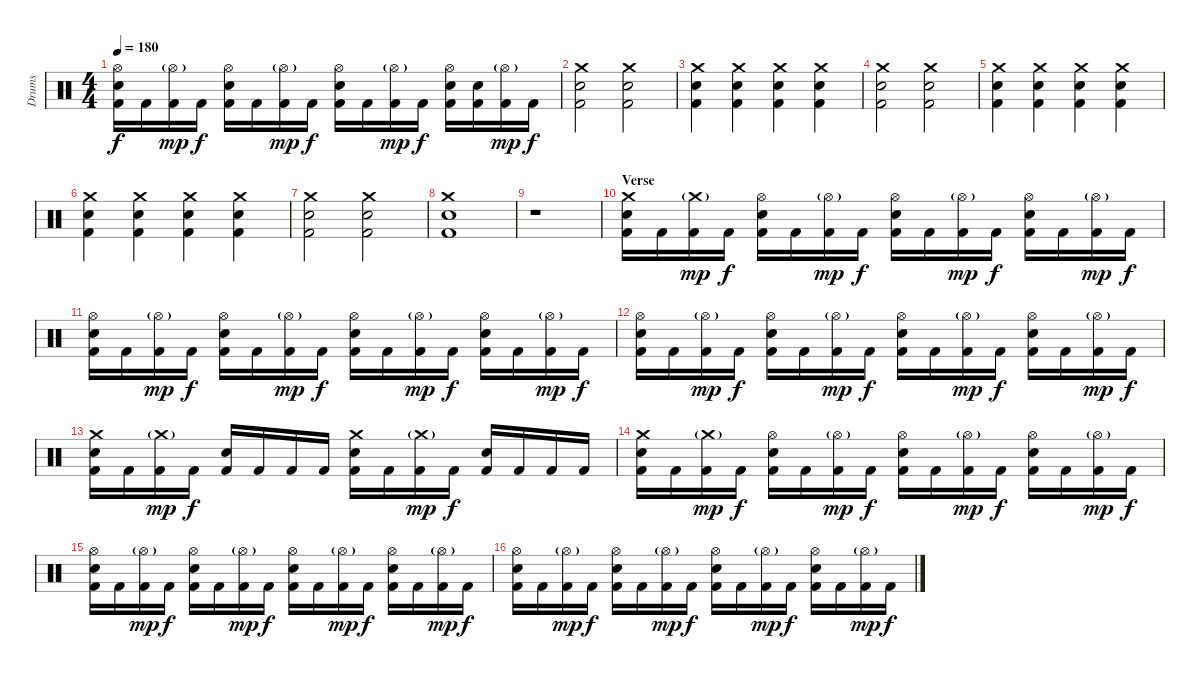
\track ("Drums" "Drums") {instrument percussion}
\staff {score}
\articulation defaults
\ts (4 4)
\tempo 180
\clef neutral
\ks c
("Hi-Hat (open)" "Electric Snare (hit)" "Kick (hit) 2").16{dy f} "Kick (hit) 2".16 ("Hi-Hat (open)"{g} "Kick (hit) 2").16{dy mp} "Kick (hit) 2".16{dy f} ("Hi-Hat (open)" "Electric Snare (hit)" "Kick (hit) 2").16 "Kick (hit) 2".16 ("Hi-Hat (open)"{g} "Kick (hit) 2").16{dy mp} "Kick (hit) 2".16{dy f} ("Hi-Hat (open)" "Electric Snare (hit)" "Kick (hit) 2").16 "Kick (hit) 2".16 ("Hi-Hat (open)"{g} "Kick (hit) 2").16{dy mp} "Kick (hit) 2".16{dy f} ("Hi-Hat (open)" "Electric Snare (hit)" "Kick (hit) 2").16 ("Electric Snare (hit)" "Kick (hit) 2").16 ("Hi-Hat (open)"{g} "Kick (hit) 2").16{dy mp} "Kick (hit) 2".16{dy f} |
\section ("" "")
("Crash medium (hit)" "Electric Snare (hit)" "Kick (hit) 2").2 ("Crash medium (hit)" "Electric Snare (hit)" "Kick (hit) 2").2 |
("Crash medium (hit)" "Electric Snare (hit)" "Kick (hit) 2").4 ("Crash medium (hit)" "Electric Snare (hit)" "Kick (hit) 2").4 ("Crash medium (hit)" "Electric Snare (hit)" "Kick (hit) 2").4 ("Crash medium (hit)" "Electric Snare (hit)" "Kick (hit) 2").4 |
("Crash medium (hit)" "Electric Snare (hit)" "Kick (hit) 2").2 ("Crash medium (hit)" "Electric Snare (hit)" "Kick (hit) 2").2 |
("Crash medium (hit)" "Electric Snare (hit)" "Kick (hit) 2").4 ("Crash medium (hit)" "Electric Snare (hit)" "Kick (hit) 2").4 ("Crash medium (hit)" "Electric Snare (hit)" "Kick (hit) 2").4 ("Crash medium (hit)" "Electric Snare (hit)" "Kick (hit) 2").4 |
("Crash medium (hit)" "Electric Snare (hit)" "Kick (hit) 2").4 ("Crash medium (hit)" "Electric Snare (hit)" "Kick (hit) 2").4 ("Crash medium (hit)" "Electric Snare (hit)" "Kick (hit) 2").4 ("Crash medium (hit)" "Electric Snare (hit)" "Kick (hit) 2").4 |
("Crash medium (hit)" "Electric Snare (hit)" "Kick (hit) 2").2 ("Crash medium (hit)" "Electric Snare (hit)" "Kick (hit) 2").2 |
("Crash medium (hit)" "Electric Snare (hit)" "Kick (hit) 2").1 |
r.1 |
\section ("" "Verse")
("Crash medium (hit)" "Electric Snare (hit)" "Kick (hit) 2").16 "Kick (hit) 2".16 ("Crash medium (hit)"{g} "Kick (hit) 2").16{dy mp} "Kick (hit) 2".16{dy f} ("Hi-Hat (open)" "Electric Snare (hit)" "Kick (hit) 2").16 "Kick (hit) 2".16 ("Hi-Hat (open)"{g} "Kick (hit) 2").16{dy mp} "Kick (hit) 2".16{dy f} ("Hi-Hat (open)" "Electric Snare (hit)" "Kick (hit) 2").16 "Kick (hit) 2".16 ("Hi-Hat (open)"{g} "Kick (hit) 2").16{dy mp} "Kick (hit) 2".16{dy f} ("Hi-Hat (open)" "Electric Snare (hit)" "Kick (hit) 2").16 "Kick (hit) 2".16 ("Hi-Hat (open)"{g} "Kick (hit) 2").16{dy mp} "Kick (hit) 2".16{dy f} |
("Hi-Hat (open)" "Electric Snare (hit)" "Kick (hit) 2").16 "Kick (hit) 2".16 ("Hi-Hat (open)"{g} "Kick (hit) 2").16{dy mp} "Kick (hit) 2".16{dy f} ("Hi-Hat (open)" "Electric Snare (hit)" "Kick (hit) 2").16 "Kick (hit) 2".16 ("Hi-Hat (open)"{g} "Kick (hit) 2").16{dy mp} "Kick (hit) 2".16{dy f} ("Hi-Hat (open)" "Electric Snare (hit)" "Kick (hit) 2").16 "Kick (hit) 2".16 ("Hi-Hat (open)"{g} "Kick (hit) 2").16{dy mp} "Kick (hit) 2".16{dy f} ("Hi-Hat (open)" "Electric Snare (hit)" "Kick (hit) 2").16 "Kick (hit) 2".16 ("Hi-Hat (open)"{g} "Kick (hit) 2").16{dy mp} "Kick (hit) 2".16{dy f} |
("Hi-Hat (open)" "Electric Snare (hit)" "Kick (hit) 2").16 "Kick (hit) 2".16 ("Hi-Hat (open)"{g} "Kick (hit) 2").16{dy mp} "Kick (hit) 2".16{dy f} ("Hi-Hat (open)" "Electric Snare (hit)" "Kick (hit) 2").16 "Kick (hit) 2".16 ("Hi-Hat (open)"{g} "Kick (hit) 2").16{dy mp} "Kick (hit) 2".16{dy f} ("Hi-Hat (open)" "Electric Snare (hit)" "Kick (hit) 2").16 "Kick (hit) 2".16 ("Hi-Hat (open)"{g} "Kick (hit) 2").16{dy mp} "Kick (hit) 2".16{dy f} ("Hi-Hat (open)" "Electric Snare (hit)" "Kick (hit) 2").16 "Kick (hit) 2".16 ("Hi-Hat (open)"{g} "Kick (hit) 2").16{dy mp} "Kick (hit) 2".16{dy f} |
("Crash medium (hit)" "Electric Snare (hit)" "Kick (hit) 2").16 "Kick (hit) 2".16 ("Crash medium (hit)"{g} "Kick (hit) 2").16{dy mp} "Kick (hit) 2".16{dy f} ("Electric Snare (hit)" "Kick (hit) 2").16 "Kick (hit) 2".16 "Kick (hit) 2".16 "Kick (hit) 2".16 ("Crash medium (hit)" "Electric Snare (hit)" "Kick (hit) 2").16 "Kick (hit) 2".16 ("Crash medium (hit)"{g} "Kick (hit) 2").16{dy mp} "Kick (hit) 2".16{dy f} ("Electric Snare (hit)" "Kick (hit) 2").16 "Kick (hit) 2".16 "Kick (hit) 2".16 "Kick (hit) 2".16 |
("Crash medium (hit)" "Electric Snare (hit)" "Kick (hit) 2").16 "Kick (hit) 2".16 ("Crash medium (hit)"{g} "Kick (hit) 2").16{dy mp} "Kick (hit) 2".16{dy f} ("Hi-Hat (open)" "Electric Snare (hit)" "Kick (hit) 2").16 "Kick (hit) 2".16 ("Hi-Hat (open)"{g} "Kick (hit) 2").16{dy mp} "Kick (hit) 2".16{dy f} ("Hi-Hat (open)" "Electric Snare (hit)" "Kick (hit) 2").16 "Kick (hit) 2".16 ("Hi-Hat (open)"{g} "Kick (hit) 2").16{dy mp} "Kick (hit) 2".16{dy f} ("Hi-Hat (open)" "Electric Snare (hit)" "Kick (hit) 2").16 "Kick (hit) 2".16 ("Hi-Hat (open)"{g} "Kick (hit) 2").16{dy mp} "Kick (hit) 2".16{dy f} |
("Hi-Hat (open)" "Electric Snare (hit)" "Kick (hit) 2").16 "Kick (hit) 2".16 ("Hi-Hat (open)"{g} "Kick (hit) 2").16{dy mp} "Kick (hit) 2".16{dy f} ("Hi-Hat (open)" "Electric Snare (hit)" "Kick (hit) 2").16 "Kick (hit) 2".16 ("Hi-Hat (open)"{g} "Kick (hit) 2").16{dy mp} "Kick (hit) 2".16{dy f} ("Hi-Hat (open)" "Electric Snare (hit)" "Kick (hit) 2").16 "Kick (hit) 2".16 ("Hi-Hat (open)"{g} "Kick (hit) 2").16{dy mp} "Kick (hit) 2".16{dy f} ("Hi-Hat (open)" "Electric Snare (hit)" "Kick (hit) 2").16 "Kick (hit) 2".16 ("Hi-Hat (open)"{g} "Kick (hit) 2").16{dy mp} "Kick (hit) 2".16{dy f} |
("Hi-Hat (open)" "Electric Snare (hit)" "Kick (hit) 2").16 "Kick (hit) 2".16 ("Hi-Hat (open)"{g} "Kick (hit) 2").16{dy mp} "Kick (hit) 2".16{dy f} ("Hi-Hat (open)" "Electric Snare (hit)" "Kick (hit) 2").16 "Kick (hit) 2".16 ("Hi-Hat (open)"{g} "Kick (hit) 2").16{dy mp} "Kick (hit) 2".16{dy f} ("Hi-Hat (open)" "Electric Snare (hit)" "Kick (hit) 2").16 "Kick (hit) 2".16 ("Hi-Hat (open)"{g} "Kick (hit) 2").16{dy mp} "Kick (hit) 2".16{dy f} ("Hi-Hat (open)" "Electric Snare (hit)" "Kick (hit) 2").16 "Kick (hit) 2".16 ("Hi-Hat (open)"{g} "Kick (hit) 2").16{dy mp} "Kick (hit) 2".16{dy f}
